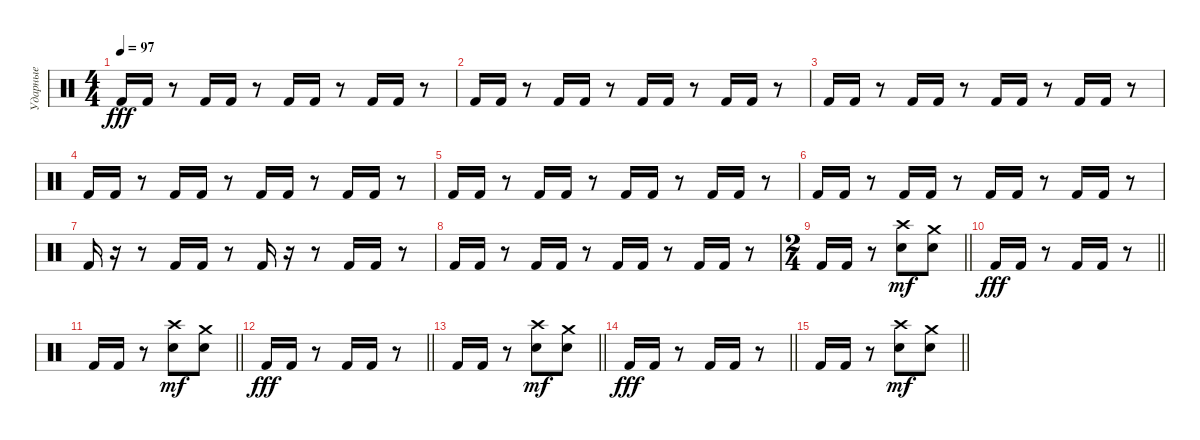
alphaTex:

\track ("Ударные" "Ударные") {instrument percussion}
\staff {score}
\articulation defaults
\ts (4 4)
\tempo 97
\clef neutral
\ks c "Kick (hit) 2".16{dy fff} "Kick (hit) 2".16
r.8 "Kick (hit) 2".16 "Kick (hit) 2".16 r.8 "Kick (hit) 2".16 "Kick (hit) 2".16 r.8 "Kick (hit) 2".16 "Kick (hit) 2".16 r.8 |
"Kick (hit) 2".16 "Kick (hit) 2".16 r.8 "Kick (hit) 2".16 "Kick (hit) 2".16 r.8 "Kick (hit) 2".16 "Kick (hit) 2".16 r.8 "Kick (hit) 2".16 "Kick (hit) 2".16 r.8 |
"Kick (hit) 2".16 "Kick (hit) 2".16 r.8 "Kick (hit) 2".16 "Kick (hit) 2".16 r.8 "Kick (hit) 2".16 "Kick (hit) 2".16 r.8 "Kick (hit) 2".16 "Kick (hit) 2".16 r.8 |
"Kick (hit) 2".16 "Kick (hit) 2".16 r.8 "Kick (hit) 2".16 "Kick (hit) 2".16 r.8 "Kick (hit) 2".16 "Kick (hit) 2".16 r.8 "Kick (hit) 2".16 "Kick (hit) 2".16 r.8 |
"Kick (hit) 2".16 "Kick (hit) 2".16 r.8 "Kick (hit) 2".16 "Kick (hit) 2".16 r.8 "Kick (hit) 2".16 "Kick (hit) 2".16 r.8 "Kick (hit) 2".16 "Kick (hit) 2".16 r.8 |
"Kick (hit) 2".16 "Kick (hit) 2".16 r.8 "Kick (hit) 2".16 "Kick (hit) 2".16 r.8 "Kick (hit) 2".16 "Kick (hit) 2".16 r.8 "Kick (hit) 2".16 "Kick (hit) 2".16 r.8 |
"Kick (hit) 2".16 r.16 r.8 "Kick (hit) 2".16 "Kick (hit) 2".16 r.8 "Kick (hit) 2".16 r.16 r.8 "Kick (hit) 2".16 "Kick (hit) 2".16 r.8 |
"Kick (hit) 2".16 "Kick (hit) 2".16 r.8 "Kick (hit) 2".16 "Kick (hit) 2".16 r.8 "Kick (hit) 2".16 "Kick (hit) 2".16 r.8 "Kick (hit) 2".16 "Kick (hit) 2".16 r.8 |
\ts (2 4)
\barLineRight lightlight "Kick (hit) 2".16 "Kick (hit) 2".16
r.8 ("Electric Snare (hit)" "Crash high (hit)").8{dy mf} ("Electric Snare (hit)" "Crash medium (hit)").8 |
\barLineRight lightlight "Kick (hit) 2".16{dy fff} "Kick (hit) 2".16
r.8 "Kick (hit) 2".16 "Kick (hit) 2".16 r.8 |
\barLineRight lightlight "Kick (hit) 2".16 "Kick (hit) 2".16
r.8 ("Electric Snare (hit)" "Crash high (hit)").8{dy mf} ("Electric Snare (hit)" "Crash medium (hit)").8 |
\barLineRight lightlight "Kick (hit) 2".16{dy fff} "Kick (hit) 2".16
r.8 "Kick (hit) 2".16 "Kick (hit) 2".16 r.8 |
\barLineRight lightlight "Kick (hit) 2".16 "Kick (hit) 2".16
r.8 ("Electric Snare (hit)" "Crash high (hit)").8{dy mf} ("Electric Snare (hit)" "Crash medium (hit)").8 |
\barLineRight lightlight "Kick (hit) 2".16{dy fff} "Kick (hit) 2".16
r.8 "Kick (hit) 2".16 "Kick (hit) 2".16 r.8 |
\barLineRight lightlight "Kick (hit) 2".16 "Kick (hit) 2".16
r.8 ("Electric Snare (hit)" "Crash high (hit)").8{dy mf} ("Electric Snare (hit)" "Crash medium (hit)").8
